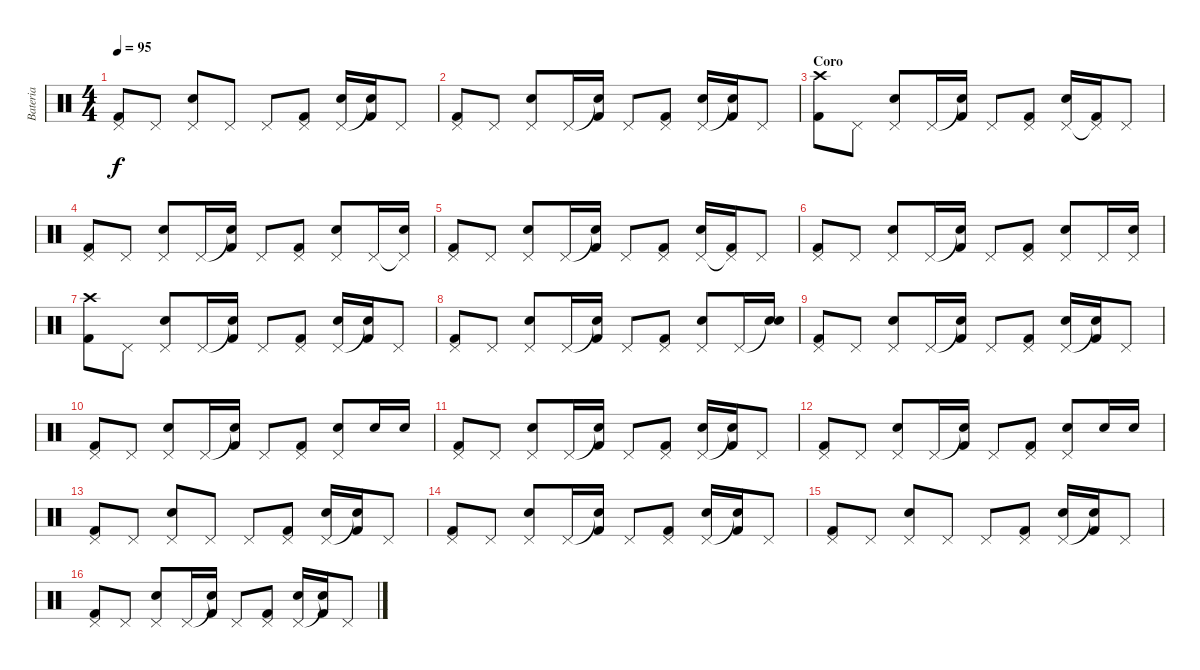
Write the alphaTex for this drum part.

\track ("Bateria" "Bateria") {instrument percussion}
\staff {score}
\articulation defaults
\ts (4 4)
\tempo 95
\clef neutral
\ks c
("Pedal Hi-Hat (hit)" "Kick (hit) 2").8{dy f} "Pedal Hi-Hat (hit)".8 ("Pedal Hi-Hat (hit)" "Electric Snare (hit)").8 "Pedal Hi-Hat (hit)".8 "Pedal Hi-Hat (hit)".8 ("Pedal Hi-Hat (hit)" "Kick (hit) 2").8 ("Pedal Hi-Hat (hit)" "Electric Snare (hit)").16 ("Snare (hit)"{t} "Kick (hit) 2").16 "Pedal Hi-Hat (hit)".8 |
("Pedal Hi-Hat (hit)" "Kick (hit) 2").8 "Pedal Hi-Hat (hit)".8 ("Pedal Hi-Hat (hit)" "Electric Snare (hit)").8 "Pedal Hi-Hat (hit)".16 ("Snare (hit)"{t} "Kick (hit) 2").16 "Pedal Hi-Hat (hit)".8 ("Pedal Hi-Hat (hit)" "Kick (hit) 2").8 ("Pedal Hi-Hat (hit)" "Electric Snare (hit)").16 ("Snare (hit)"{t} "Kick (hit) 2").16 "Pedal Hi-Hat (hit)".8 |
\section ("" "Coro")
("Crash high (hit)" "Kick (hit) 2").8 "Pedal Hi-Hat (hit)".8 ("Pedal Hi-Hat (hit)" "Electric Snare (hit)").8 "Pedal Hi-Hat (hit)".16 ("Snare (hit)"{t} "Kick (hit) 2").16 "Pedal Hi-Hat (hit)".8 ("Pedal Hi-Hat (hit)" "Kick (hit) 2").8 ("Pedal Hi-Hat (hit)" "Electric Snare (hit)").16 ("Pedal Hi-Hat (hit)"{t} "Kick (hit) 2").16 "Pedal Hi-Hat (hit)".8 |
("Pedal Hi-Hat (hit)" "Kick (hit) 2").8 "Pedal Hi-Hat (hit)".8 ("Pedal Hi-Hat (hit)" "Electric Snare (hit)").8 "Pedal Hi-Hat (hit)".16 ("Snare (hit)"{t} "Kick (hit) 2").16 "Pedal Hi-Hat (hit)".8 ("Pedal Hi-Hat (hit)" "Kick (hit) 2").8 ("Pedal Hi-Hat (hit)" "Electric Snare (hit)").8 "Pedal Hi-Hat (hit)".16 ("Pedal Hi-Hat (hit)"{t} "Electric Snare (hit)").16 |
("Pedal Hi-Hat (hit)" "Kick (hit) 2").8 "Pedal Hi-Hat (hit)".8 ("Pedal Hi-Hat (hit)" "Electric Snare (hit)").8 "Pedal Hi-Hat (hit)".16 ("Snare (hit)"{t} "Kick (hit) 2").16 "Pedal Hi-Hat (hit)".8 ("Pedal Hi-Hat (hit)" "Kick (hit) 2").8 ("Pedal Hi-Hat (hit)" "Electric Snare (hit)").16 ("Pedal Hi-Hat (hit)"{t} "Kick (hit) 2").16 "Pedal Hi-Hat (hit)".8 |
("Pedal Hi-Hat (hit)" "Kick (hit) 2").8 "Pedal Hi-Hat (hit)".8 ("Pedal Hi-Hat (hit)" "Electric Snare (hit)").8 "Pedal Hi-Hat (hit)".16 ("Snare (hit)"{t} "Kick (hit) 2").16 "Pedal Hi-Hat (hit)".8 ("Pedal Hi-Hat (hit)" "Kick (hit) 2").8 ("Pedal Hi-Hat (hit)" "Electric Snare (hit)").8 "Pedal Hi-Hat (hit)".16 ("Pedal Hi-Hat (hit)" "Electric Snare (hit)").16 |
("Crash high (hit)" "Kick (hit) 2").8 "Pedal Hi-Hat (hit)".8 ("Pedal Hi-Hat (hit)" "Electric Snare (hit)").8 "Pedal Hi-Hat (hit)".16 ("Snare (hit)"{t} "Kick (hit) 2").16 "Pedal Hi-Hat (hit)".8 ("Pedal Hi-Hat (hit)" "Kick (hit) 2").8 ("Pedal Hi-Hat (hit)" "Electric Snare (hit)").16 ("Snare (hit)"{t} "Kick (hit) 2").16 "Pedal Hi-Hat (hit)".8 |
("Pedal Hi-Hat (hit)" "Kick (hit) 2").8 "Pedal Hi-Hat (hit)".8 ("Pedal Hi-Hat (hit)" "Electric Snare (hit)").8 "Pedal Hi-Hat (hit)".16 ("Snare (hit)"{t} "Kick (hit) 2").16 "Pedal Hi-Hat (hit)".8 ("Pedal Hi-Hat (hit)" "Kick (hit) 2").8 ("Pedal Hi-Hat (hit)" "Electric Snare (hit)").8 "Pedal Hi-Hat (hit)".16 ("Snare (hit)"{t} "Electric Snare (hit)").16 |
("Pedal Hi-Hat (hit)" "Kick (hit) 2").8 "Pedal Hi-Hat (hit)".8 ("Pedal Hi-Hat (hit)" "Electric Snare (hit)").8 "Pedal Hi-Hat (hit)".16 ("Snare (hit)"{t} "Kick (hit) 2").16 "Pedal Hi-Hat (hit)".8 ("Pedal Hi-Hat (hit)" "Kick (hit) 2").8 ("Pedal Hi-Hat (hit)" "Electric Snare (hit)").16 ("Snare (hit)"{t} "Kick (hit) 2").16 "Pedal Hi-Hat (hit)".8 |
("Pedal Hi-Hat (hit)" "Kick (hit) 2").8 "Pedal Hi-Hat (hit)".8 ("Pedal Hi-Hat (hit)" "Electric Snare (hit)").8 "Pedal Hi-Hat (hit)".16 ("Snare (hit)"{t} "Kick (hit) 2").16 "Pedal Hi-Hat (hit)".8 ("Pedal Hi-Hat (hit)" "Kick (hit) 2").8 ("Pedal Hi-Hat (hit)" "Electric Snare (hit)").8 "Electric Snare (hit)".16 "Electric Snare (hit)".16 |
("Pedal Hi-Hat (hit)" "Kick (hit) 2").8 "Pedal Hi-Hat (hit)".8 ("Pedal Hi-Hat (hit)" "Electric Snare (hit)").8 "Pedal Hi-Hat (hit)".16 ("Snare (hit)"{t} "Kick (hit) 2").16 "Pedal Hi-Hat (hit)".8 ("Pedal Hi-Hat (hit)" "Kick (hit) 2").8 ("Pedal Hi-Hat (hit)" "Electric Snare (hit)").16 ("Snare (hit)"{t} "Kick (hit) 2").16 "Pedal Hi-Hat (hit)".8 |
("Pedal Hi-Hat (hit)" "Kick (hit) 2").8 "Pedal Hi-Hat (hit)".8 ("Pedal Hi-Hat (hit)" "Electric Snare (hit)").8 "Pedal Hi-Hat (hit)".16 ("Snare (hit)"{t} "Kick (hit) 2").16 "Pedal Hi-Hat (hit)".8 ("Pedal Hi-Hat (hit)" "Kick (hit) 2").8 ("Pedal Hi-Hat (hit)" "Electric Snare (hit)").8 "Electric Snare (hit)".16 "Electric Snare (hit)".16 |
\section ("" "")
("Pedal Hi-Hat (hit)" "Kick (hit) 2").8 "Pedal Hi-Hat (hit)".8 ("Pedal Hi-Hat (hit)" "Electric Snare (hit)").8 "Pedal Hi-Hat (hit)".8 "Pedal Hi-Hat (hit)".8 ("Pedal Hi-Hat (hit)" "Kick (hit) 2").8 ("Pedal Hi-Hat (hit)" "Electric Snare (hit)").16 ("Snare (hit)"{t} "Kick (hit) 2").16 "Pedal Hi-Hat (hit)".8 |
("Pedal Hi-Hat (hit)" "Kick (hit) 2").8 "Pedal Hi-Hat (hit)".8 ("Pedal Hi-Hat (hit)" "Electric Snare (hit)").8 "Pedal Hi-Hat (hit)".16 ("Snare (hit)"{t} "Kick (hit) 2").16 "Pedal Hi-Hat (hit)".8 ("Pedal Hi-Hat (hit)" "Kick (hit) 2").8 ("Pedal Hi-Hat (hit)" "Electric Snare (hit)").16 ("Snare (hit)"{t} "Kick (hit) 2").16 "Pedal Hi-Hat (hit)".8 |
("Pedal Hi-Hat (hit)" "Kick (hit) 2").8 "Pedal Hi-Hat (hit)".8 ("Pedal Hi-Hat (hit)" "Electric Snare (hit)").8 "Pedal Hi-Hat (hit)".8 "Pedal Hi-Hat (hit)".8 ("Pedal Hi-Hat (hit)" "Kick (hit) 2").8 ("Pedal Hi-Hat (hit)" "Electric Snare (hit)").16 ("Snare (hit)"{t} "Kick (hit) 2").16 "Pedal Hi-Hat (hit)".8 |
("Pedal Hi-Hat (hit)" "Kick (hit) 2").8 "Pedal Hi-Hat (hit)".8 ("Pedal Hi-Hat (hit)" "Electric Snare (hit)").8 "Pedal Hi-Hat (hit)".16 ("Snare (hit)"{t} "Kick (hit) 2").16 "Pedal Hi-Hat (hit)".8 ("Pedal Hi-Hat (hit)" "Kick (hit) 2").8 ("Pedal Hi-Hat (hit)" "Electric Snare (hit)").16 ("Snare (hit)"{t} "Kick (hit) 2").16 "Pedal Hi-Hat (hit)".8
